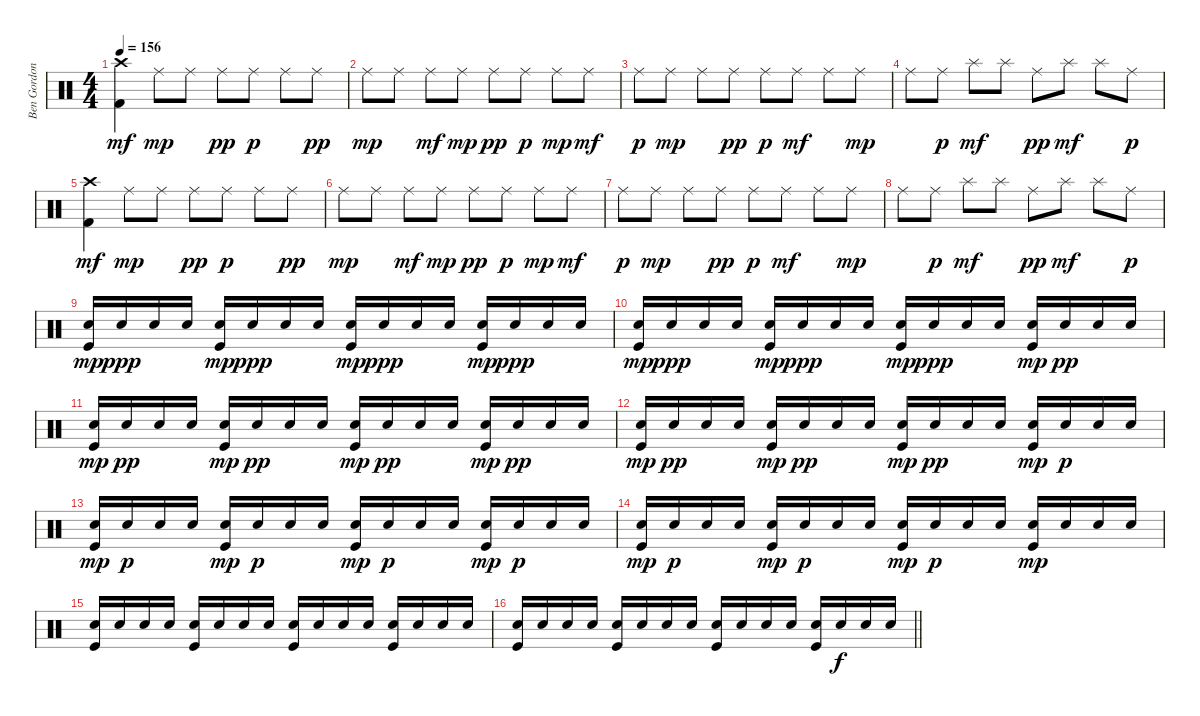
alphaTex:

\track ("Ben Gordon" "Ben Gordon") {instrument percussion}
\staff {score}
\articulation defaults
\ts (4 4)
\tempo 156
\clef neutral
\ks c
("Crash high (hit)" "Kick (hit) 2").4{dy mf} "Ride (middle)".8{dy mp} "Ride (middle)".8 "Ride (middle)".8{dy pp} "Ride (middle)".8{dy p} "Ride (middle)".8 "Ride (middle)".8{dy pp} |
"Ride (middle)".8{dy mp} "Ride (middle)".8 "Ride (middle)".8{dy mf} "Ride (middle)".8{dy mp} "Ride (middle)".8{dy pp} "Ride (middle)".8{dy p} "Ride (middle)".8{dy mp} "Ride (middle)".8{dy mf} |
"Ride (middle)".8{dy p} "Ride (middle)".8{dy mp} "Ride (middle)".8 "Ride (middle)".8{dy pp} "Ride (middle)".8{dy p} "Ride (middle)".8{dy mf} "Ride (middle)".8 "Ride (middle)".8{dy mp} |
"Ride (middle)".8 "Ride (middle)".8{dy p} "Splash (hit)".8{dy mf} "Splash (hit)".8 "Ride (middle)".8{dy pp} "Splash (hit)".8{dy mf} "Splash (hit)".8 "Ride (middle)".8{dy p} |
("Crash high (hit)" "Kick (hit) 2").4{dy mf} "Ride (middle)".8{dy mp} "Ride (middle)".8 "Ride (middle)".8{dy pp} "Ride (middle)".8{dy p} "Ride (middle)".8 "Ride (middle)".8{dy pp} |
"Ride (middle)".8{dy mp} "Ride (middle)".8 "Ride (middle)".8{dy mf} "Ride (middle)".8{dy mp} "Ride (middle)".8{dy pp} "Ride (middle)".8{dy p} "Ride (middle)".8{dy mp} "Ride (middle)".8{dy mf} |
"Ride (middle)".8{dy p} "Ride (middle)".8{dy mp} "Ride (middle)".8 "Ride (middle)".8{dy pp} "Ride (middle)".8{dy p} "Ride (middle)".8{dy mf} "Ride (middle)".8 "Ride (middle)".8{dy mp} |
"Ride (middle)".8 "Ride (middle)".8{dy p} "Splash (hit)".8{dy mf} "Splash (hit)".8 "Ride (middle)".8{dy pp} "Splash (hit)".8{dy mf} "Splash (hit)".8 "Ride (middle)".8{dy p} |
("Electric Snare (hit)" "Kick (hit)").16{dy mp} "Electric Snare (hit)".16{dy ppp} "Electric Snare (hit)".16 "Electric Snare (hit)".16 ("Electric Snare (hit)" "Kick (hit)").16{dy mp} "Electric Snare (hit)".16{dy ppp} "Electric Snare (hit)".16 "Electric Snare (hit)".16 ("Electric Snare (hit)" "Kick (hit)").16{dy mp} "Electric Snare (hit)".16{dy ppp} "Electric Snare (hit)".16 "Electric Snare (hit)".16 ("Electric Snare (hit)" "Kick (hit)").16{dy mp} "Electric Snare (hit)".16{dy ppp} "Electric Snare (hit)".16 "Electric Snare (hit)".16 |
("Electric Snare (hit)" "Kick (hit)").16{dy mp} "Electric Snare (hit)".16{dy ppp} "Electric Snare (hit)".16 "Electric Snare (hit)".16 ("Electric Snare (hit)" "Kick (hit)").16{dy mp} "Electric Snare (hit)".16{dy ppp} "Electric Snare (hit)".16 "Electric Snare (hit)".16 ("Electric Snare (hit)" "Kick (hit)").16{dy mp} "Electric Snare (hit)".16{dy ppp} "Electric Snare (hit)".16 "Electric Snare (hit)".16 ("Electric Snare (hit)" "Kick (hit)").16{dy mp} "Electric Snare (hit)".16{dy pp} "Electric Snare (hit)".16 "Electric Snare (hit)".16 |
("Electric Snare (hit)" "Kick (hit)").16{dy mp} "Electric Snare (hit)".16{dy pp} "Electric Snare (hit)".16 "Electric Snare (hit)".16 ("Electric Snare (hit)" "Kick (hit)").16{dy mp} "Electric Snare (hit)".16{dy pp} "Electric Snare (hit)".16 "Electric Snare (hit)".16 ("Electric Snare (hit)" "Kick (hit)").16{dy mp} "Electric Snare (hit)".16{dy pp} "Electric Snare (hit)".16 "Electric Snare (hit)".16 ("Electric Snare (hit)" "Kick (hit)").16{dy mp} "Electric Snare (hit)".16{dy pp} "Electric Snare (hit)".16 "Electric Snare (hit)".16 |
("Electric Snare (hit)" "Kick (hit)").16{dy mp} "Electric Snare (hit)".16{dy pp} "Electric Snare (hit)".16 "Electric Snare (hit)".16 ("Electric Snare (hit)" "Kick (hit)").16{dy mp} "Electric Snare (hit)".16{dy pp} "Electric Snare (hit)".16 "Electric Snare (hit)".16 ("Electric Snare (hit)" "Kick (hit)").16{dy mp} "Electric Snare (hit)".16{dy pp} "Electric Snare (hit)".16 "Electric Snare (hit)".16 ("Electric Snare (hit)" "Kick (hit)").16{dy mp} "Electric Snare (hit)".16{dy p} "Electric Snare (hit)".16 "Electric Snare (hit)".16 |
("Electric Snare (hit)" "Kick (hit)").16{dy mp} "Electric Snare (hit)".16{dy p} "Electric Snare (hit)".16 "Electric Snare (hit)".16 ("Electric Snare (hit)" "Kick (hit)").16{dy mp} "Electric Snare (hit)".16{dy p} "Electric Snare (hit)".16 "Electric Snare (hit)".16 ("Electric Snare (hit)" "Kick (hit)").16{dy mp} "Electric Snare (hit)".16{dy p} "Electric Snare (hit)".16 "Electric Snare (hit)".16 ("Electric Snare (hit)" "Kick (hit)").16{dy mp} "Electric Snare (hit)".16{dy p} "Electric Snare (hit)".16 "Electric Snare (hit)".16 |
("Electric Snare (hit)" "Kick (hit)").16{dy mp} "Electric Snare (hit)".16{dy p} "Electric Snare (hit)".16 "Electric Snare (hit)".16 ("Electric Snare (hit)" "Kick (hit)").16{dy mp} "Electric Snare (hit)".16{dy p} "Electric Snare (hit)".16 "Electric Snare (hit)".16 ("Electric Snare (hit)" "Kick (hit)").16{dy mp} "Electric Snare (hit)".16{dy p} "Electric Snare (hit)".16 "Electric Snare (hit)".16 ("Electric Snare (hit)" "Kick (hit)").16{dy mp} "Electric Snare (hit)".16 "Electric Snare (hit)".16 "Electric Snare (hit)".16 |
("Electric Snare (hit)" "Kick (hit)").16 "Electric Snare (hit)".16 "Electric Snare (hit)".16 "Electric Snare (hit)".16 ("Electric Snare (hit)" "Kick (hit)").16 "Electric Snare (hit)".16 "Electric Snare (hit)".16 "Electric Snare (hit)".16 ("Electric Snare (hit)" "Kick (hit)").16 "Electric Snare (hit)".16 "Electric Snare (hit)".16 "Electric Snare (hit)".16 ("Electric Snare (hit)" "Kick (hit)").16 "Electric Snare (hit)".16 "Electric Snare (hit)".16 "Electric Snare (hit)".16 |
\barLineRight lightlight
("Electric Snare (hit)" "Kick (hit)").16 "Electric Snare (hit)".16 "Electric Snare (hit)".16 "Electric Snare (hit)".16 ("Electric Snare (hit)" "Kick (hit)").16 "Electric Snare (hit)".16 "Electric Snare (hit)".16 "Electric Snare (hit)".16 ("Electric Snare (hit)" "Kick (hit)").16 "Electric Snare (hit)".16 "Electric Snare (hit)".16 "Electric Snare (hit)".16 ("Electric Snare (hit)" "Kick (hit)").16 "Electric Snare (hit)".16{dy f} "Electric Snare (hit)".16 "Electric Snare (hit)".16
